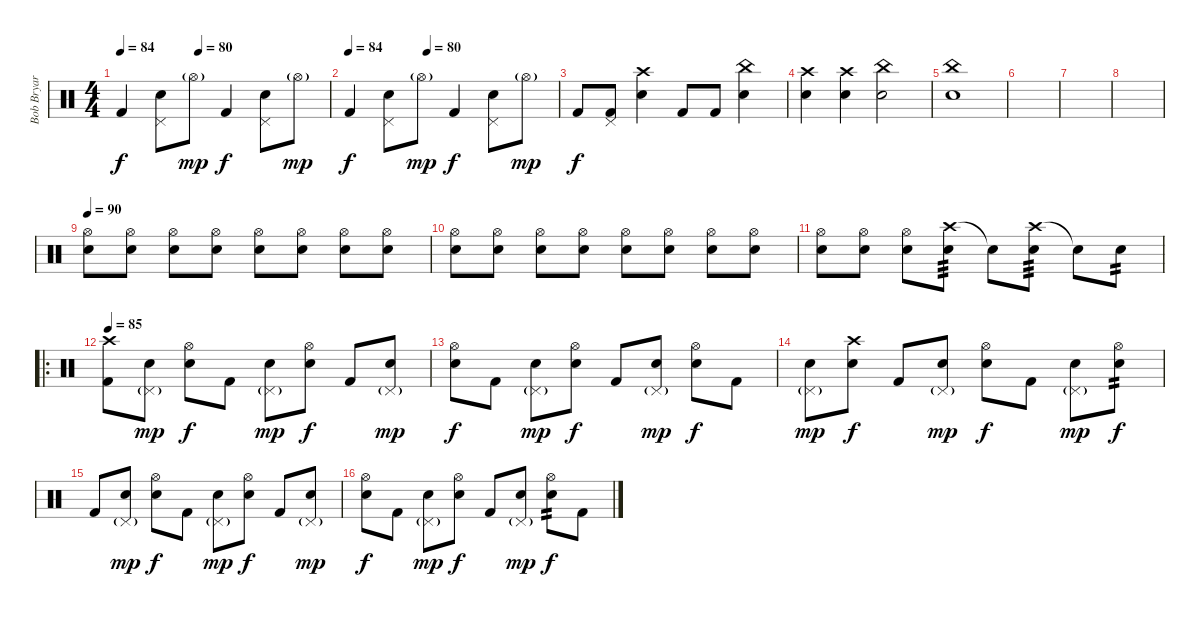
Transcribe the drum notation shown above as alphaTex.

\track ("Bob Bryar (Drums)" "Bob Bryar ") {instrument percussion}
\staff {score}
\articulation defaults
\ts (4 4)
\tempo 90
\tempo 84
\tempo (80 0.375)
\clef neutral
\ks c "Kick (hit) 2".4{dy f}
("Pedal Hi-Hat (hit)" "Electric Snare (hit)").8 "Hi-Hat (open)"{g}.8{dy mp} "Kick (hit) 2".4{dy f} ("Pedal Hi-Hat (hit)" "Electric Snare (hit)").8 "Hi-Hat (open)"{g}.8{dy mp} |
\tempo 90
\tempo 84
\tempo (80 0.375)
"Kick (hit) 2".4{dy f} ("Pedal Hi-Hat (hit)" "Electric Snare (hit)").8 "Hi-Hat (open)"{g}.8{dy mp} "Kick (hit) 2".4{dy f} ("Pedal Hi-Hat (hit)" "Electric Snare (hit)").8 "Hi-Hat (open)"{g}.8{dy mp} |
"Kick (hit) 2".8{dy f} ("Pedal Hi-Hat (hit)" "Kick (hit) 2").8 ("Crash high (hit)" "Electric Snare (hit)").4 "Kick (hit) 2".8 "Kick (hit) 2".8 ("China (hit)" "Electric Snare (hit)").4 |
("Crash high (hit)" "Electric Snare (hit)").4 ("Crash high (hit)" "Electric Snare (hit)").4 ("China (hit)" "Electric Snare (hit)").2 |
("China (hit)" "Electric Snare (hit)").1 |
|
|
|
\tempo 110
\tempo 90
("Hi-Hat (open)" "Electric Snare (hit)").8 ("Hi-Hat (open)" "Electric Snare (hit)").8 ("Hi-Hat (open)" "Electric Snare (hit)").8 ("Hi-Hat (open)" "Electric Snare (hit)").8{volume 16} ("Hi-Hat (open)" "Electric Snare (hit)").8 ("Hi-Hat (open)" "Electric Snare (hit)").8 ("Hi-Hat (open)" "Electric Snare (hit)").8 ("Hi-Hat (open)" "Electric Snare (hit)").8 |
("Hi-Hat (open)" "Electric Snare (hit)").8 ("Hi-Hat (open)" "Electric Snare (hit)").8 ("Hi-Hat (open)" "Electric Snare (hit)").8 ("Hi-Hat (open)" "Electric Snare (hit)").8 ("Hi-Hat (open)" "Electric Snare (hit)").8 ("Hi-Hat (open)" "Electric Snare (hit)").8 ("Hi-Hat (open)" "Electric Snare (hit)").8 ("Hi-Hat (open)" "Electric Snare (hit)").8 |
("Hi-Hat (open)" "Electric Snare (hit)").8 ("Hi-Hat (open)" "Electric Snare (hit)").8 ("Hi-Hat (open)" "Electric Snare (hit)").8 ("Crash high (hit)" "Electric Snare (hit)").8{tp 3} "Electric Snare (hit)"{t}.8 ("Crash high (hit)" "Electric Snare (hit)").8{tp 3} "Snare (hit)"{t}.8 "Electric Snare (hit)".8{tp 2} |
\ro
\tempo 85
("Crash high (hit)" "Kick (hit) 2").8 ("Pedal Hi-Hat (hit)"{g} "Electric Snare (hit)").8{dy mp} ("Hi-Hat (open)" "Electric Snare (hit)").8{dy f} "Kick (hit) 2".8 ("Pedal Hi-Hat (hit)"{g} "Electric Snare (hit)").8{dy mp} ("Hi-Hat (open)" "Electric Snare (hit)").8{dy f} "Kick (hit) 2".8 ("Pedal Hi-Hat (hit)"{g} "Electric Snare (hit)").8{dy mp} |
("Hi-Hat (open)" "Electric Snare (hit)").8{dy f} "Kick (hit) 2".8 ("Pedal Hi-Hat (hit)"{g} "Electric Snare (hit)").8{dy mp} ("Hi-Hat (open)" "Electric Snare (hit)").8{dy f} "Kick (hit) 2".8 ("Pedal Hi-Hat (hit)"{g} "Electric Snare (hit)").8{dy mp} ("Hi-Hat (open)" "Electric Snare (hit)").8{dy f} "Kick (hit) 2".8 |
("Pedal Hi-Hat (hit)"{g} "Electric Snare (hit)").8{dy mp} ("Crash high (hit)" "Electric Snare (hit)").8{dy f} "Kick (hit) 2".8 ("Pedal Hi-Hat (hit)"{g} "Electric Snare (hit)").8{dy mp} ("Hi-Hat (open)" "Electric Snare (hit)").8{dy f} "Kick (hit) 2".8 ("Pedal Hi-Hat (hit)"{g} "Electric Snare (hit)").8{dy mp} ("Hi-Hat (open)" "Electric Snare (hit)").8{tp 2 dy f} |
"Kick (hit) 2".8 ("Pedal Hi-Hat (hit)"{g} "Electric Snare (hit)").8{dy mp} ("Hi-Hat (open)" "Electric Snare (hit)").8{dy f} "Kick (hit) 2".8 ("Pedal Hi-Hat (hit)"{g} "Electric Snare (hit)").8{dy mp} ("Hi-Hat (open)" "Electric Snare (hit)").8{dy f} "Kick (hit) 2".8 ("Pedal Hi-Hat (hit)"{g} "Electric Snare (hit)").8{dy mp} |
("Hi-Hat (open)" "Electric Snare (hit)").8{dy f} "Kick (hit) 2".8 ("Pedal Hi-Hat (hit)"{g} "Electric Snare (hit)").8{dy mp} ("Hi-Hat (open)" "Electric Snare (hit)").8{dy f} "Kick (hit) 2".8 ("Pedal Hi-Hat (hit)"{g} "Electric Snare (hit)").8{dy mp} ("Hi-Hat (open)" "Electric Snare (hit)").8{tp 2 dy f} "Kick (hit) 2".8
